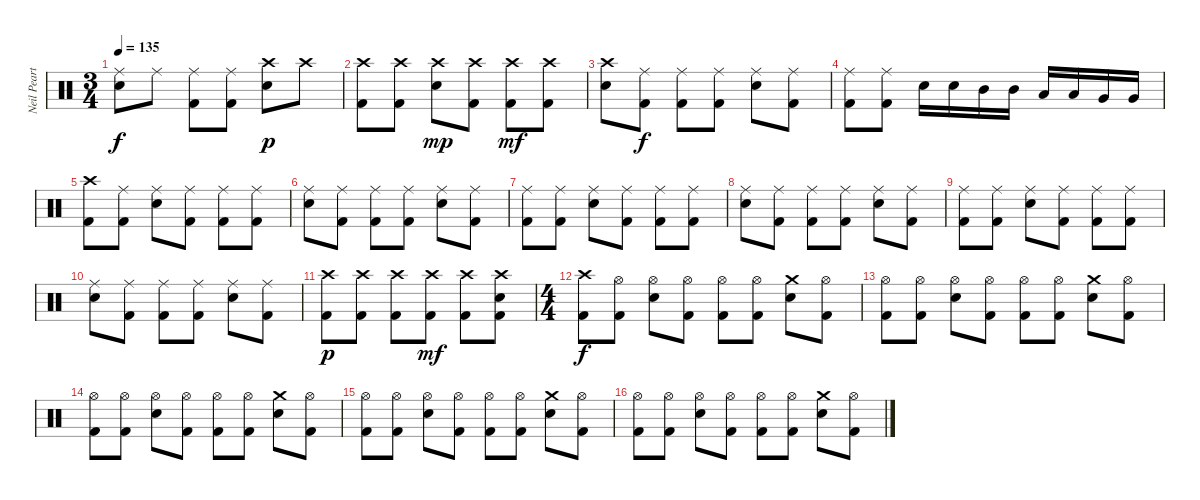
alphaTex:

\track ("Neil Peart" "Neil Peart") {instrument percussion}
\staff {score}
\articulation defaults
\ts (3 4)
\tempo 135
\clef neutral
\ks c
("Ride (middle)" "Snare (hit) 2").8{dy f} "Ride (middle)".8 ("Ride (middle)" "Kick (hit) 2").8 ("Ride (middle)" "Kick (hit) 2").8 ("Crash high (hit)" "Snare (hit) 2").8{dy p} "Crash high (hit)".8 |
("Crash high (hit)" "Kick (hit) 2").8 ("Crash high (hit)" "Kick (hit) 2").8 ("Crash high (hit)" "Snare (hit) 2").8{dy mp} ("Crash high (hit)" "Kick (hit) 2").8 ("Crash high (hit)" "Kick (hit) 2").8{dy mf} ("Crash high (hit)" "Kick (hit) 2").8 |
("Crash high (hit)" "Snare (hit) 2").8 ("Ride (middle)" "Kick (hit) 2").8{dy f} ("Ride (middle)" "Kick (hit) 2").8 ("Ride (middle)" "Kick (hit) 2").8 ("Ride (middle)" "Snare (hit) 2").8 ("Ride (middle)" "Kick (hit) 2").8 |
("Ride (middle)" "Kick (hit) 2").8 ("Ride (middle)" "Kick (hit) 2").8 "Snare (hit) 2".16 "Snare (hit) 2".16 "Mid Tom (hit)".16 "Mid Tom (hit)".16 "Low Tom (hit)".16 "Low Tom (hit)".16 "Very Low Tom (hit)".16 "Very Low Tom (hit)".16 |
("Crash high (hit)" "Kick (hit) 2").8 ("Ride (middle)" "Kick (hit) 2").8 ("Ride (middle)" "Snare (hit) 2").8 ("Ride (middle)" "Kick (hit) 2").8 ("Ride (middle)" "Kick (hit) 2").8 ("Ride (middle)" "Kick (hit) 2").8 |
("Ride (middle)" "Snare (hit) 2").8 ("Ride (middle)" "Kick (hit) 2").8 ("Ride (middle)" "Kick (hit) 2").8 ("Ride (middle)" "Kick (hit) 2").8 ("Ride (middle)" "Snare (hit) 2").8 ("Ride (middle)" "Kick (hit) 2").8 |
("Ride (middle)" "Kick (hit) 2").8 ("Ride (middle)" "Kick (hit) 2").8 ("Ride (middle)" "Snare (hit) 2").8 ("Ride (middle)" "Kick (hit) 2").8 ("Ride (middle)" "Kick (hit) 2").8 ("Ride (middle)" "Kick (hit) 2").8 |
("Ride (middle)" "Snare (hit) 2").8 ("Ride (middle)" "Kick (hit) 2").8 ("Ride (middle)" "Kick (hit) 2").8 ("Ride (middle)" "Kick (hit) 2").8 ("Ride (middle)" "Snare (hit) 2").8 ("Ride (middle)" "Kick (hit) 2").8 |
("Ride (middle)" "Kick (hit) 2").8 ("Ride (middle)" "Kick (hit) 2").8 ("Ride (middle)" "Snare (hit) 2").8 ("Ride (middle)" "Kick (hit) 2").8 ("Ride (middle)" "Kick (hit) 2").8 ("Ride (middle)" "Kick (hit) 2").8 |
("Ride (middle)" "Snare (hit) 2").8 ("Ride (middle)" "Kick (hit) 2").8 ("Ride (middle)" "Kick (hit) 2").8 ("Ride (middle)" "Kick (hit) 2").8 ("Ride (middle)" "Snare (hit) 2").8 ("Ride (middle)" "Kick (hit) 2").8 |
("Crash high (hit)" "Kick (hit) 2").8{dy p} ("Crash high (hit)" "Kick (hit) 2").8 ("Crash high (hit)" "Kick (hit) 2").8 ("Crash high (hit)" "Kick (hit) 2").8{dy mf} ("Crash high (hit)" "Kick (hit) 2").8 ("Crash high (hit)" "Snare (hit) 2" "Kick (hit) 2").8 |
\ts (4 4)
("Crash high (hit)" "Kick (hit) 2").8{dy f} ("Hi-Hat (open)" "Kick (hit) 2").8 ("Hi-Hat (open)" "Snare (hit) 2").8 ("Hi-Hat (open)" "Kick (hit) 2").8 ("Hi-Hat (open)" "Kick (hit) 2").8 ("Hi-Hat (open)" "Kick (hit) 2").8 ("Crash medium (hit)" "Snare (hit) 2").8 ("Hi-Hat (open)" "Kick (hit) 2").8 |
("Hi-Hat (open)" "Kick (hit) 2").8 ("Hi-Hat (open)" "Kick (hit) 2").8 ("Hi-Hat (open)" "Snare (hit) 2").8 ("Hi-Hat (open)" "Kick (hit) 2").8 ("Hi-Hat (open)" "Kick (hit) 2").8 ("Hi-Hat (open)" "Kick (hit) 2").8 ("Crash medium (hit)" "Snare (hit) 2").8 ("Hi-Hat (open)" "Kick (hit) 2").8 |
("Hi-Hat (open)" "Kick (hit) 2").8 ("Hi-Hat (open)" "Kick (hit) 2").8 ("Hi-Hat (open)" "Snare (hit) 2").8 ("Hi-Hat (open)" "Kick (hit) 2").8 ("Hi-Hat (open)" "Kick (hit) 2").8 ("Hi-Hat (open)" "Kick (hit) 2").8 ("Crash medium (hit)" "Snare (hit) 2").8 ("Hi-Hat (open)" "Kick (hit) 2").8 |
("Hi-Hat (open)" "Kick (hit) 2").8 ("Hi-Hat (open)" "Kick (hit) 2").8 ("Hi-Hat (open)" "Snare (hit) 2").8 ("Hi-Hat (open)" "Kick (hit) 2").8 ("Hi-Hat (open)" "Kick (hit) 2").8 ("Hi-Hat (open)" "Kick (hit) 2").8 ("Crash medium (hit)" "Snare (hit) 2").8 ("Hi-Hat (open)" "Kick (hit) 2").8 |
("Hi-Hat (open)" "Kick (hit) 2").8 ("Hi-Hat (open)" "Kick (hit) 2").8 ("Hi-Hat (open)" "Snare (hit) 2").8 ("Hi-Hat (open)" "Kick (hit) 2").8 ("Hi-Hat (open)" "Kick (hit) 2").8 ("Hi-Hat (open)" "Kick (hit) 2").8 ("Crash medium (hit)" "Snare (hit) 2").8 ("Hi-Hat (open)" "Kick (hit) 2").8
